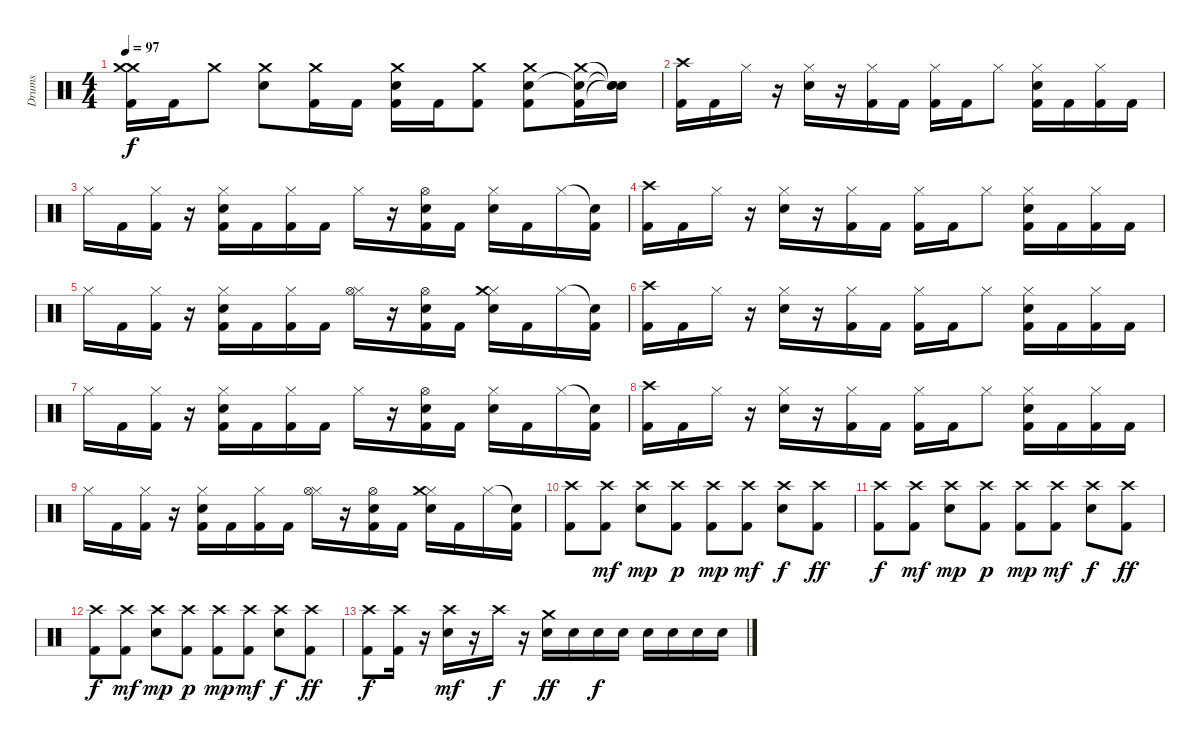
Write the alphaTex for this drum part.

\track ("Drums" "Drums") {instrument percussion}
\staff {score}
\articulation defaults
\ts (4 4)
\tempo 97
\clef neutral
\ks c
("Crash medium (hit)" "Crash medium (hit)" "Kick (hit) 2").16{dy f} "Kick (hit) 2".16 "Crash medium (hit)".8 ("Crash medium (hit)" "Electric Snare (hit)").8 ("Crash medium (hit)" "Kick (hit) 2").16 "Kick (hit) 2".16 ("Crash medium (hit)" "Electric Snare (hit)" "Kick (hit) 2").16 "Kick (hit) 2".16 ("Crash medium (hit)" "Kick (hit) 2").8 ("Crash medium (hit)" "Electric Snare (hit)" "Kick (hit) 2").8 ("Crash medium (hit)" "Snare (hit)"{t} "Kick (hit) 2").16 ("Snare (hit)"{t} "Snare (hit)"{t} "Snare (hit)"{t}).16 |
("Crash high (hit)" "Kick (hit) 2").16 "Kick (hit) 2".16 "Hi-Hat (closed)".16 r.16 ("Hi-Hat (closed)" "Snare (hit) 2").16 r.16 ("Hi-Hat (closed)" "Kick (hit) 2").16 "Kick (hit) 2".16 ("Hi-Hat (closed)" "Kick (hit) 2").16 "Kick (hit) 2".16 "Hi-Hat (closed)".8 ("Hi-Hat (closed)" "Snare (hit) 2" "Kick (hit) 2").16 "Kick (hit) 2".16 ("Hi-Hat (closed)" "Kick (hit) 2").16 "Kick (hit) 2".16 |
"Hi-Hat (closed)".16 "Kick (hit) 2".16 ("Hi-Hat (closed)" "Kick (hit) 2").16 r.16 ("Hi-Hat (closed)" "Snare (hit) 2" "Kick (hit) 2").16 "Kick (hit) 2".16 ("Hi-Hat (closed)" "Kick (hit) 2").16 "Kick (hit) 2".16 "Hi-Hat (closed)".16 r.16 ("Hi-Hat (open)" "Snare (hit) 2" "Kick (hit) 2").16 "Kick (hit) 2".16 ("Hi-Hat (closed)" "Snare (hit) 2").16 "Kick (hit) 2".16 "Hi-Hat (closed)".16 ("Snare (hit)"{t} "Kick (hit) 2").16 |
("Crash high (hit)" "Kick (hit) 2").16 "Kick (hit) 2".16 "Hi-Hat (closed)".16 r.16 ("Hi-Hat (closed)" "Snare (hit) 2").16 r.16 ("Hi-Hat (closed)" "Kick (hit) 2").16 "Kick (hit) 2".16 ("Hi-Hat (closed)" "Kick (hit) 2").16 "Kick (hit) 2".16 "Hi-Hat (closed)".8 ("Hi-Hat (closed)" "Snare (hit) 2" "Kick (hit) 2").16 "Kick (hit) 2".16 ("Hi-Hat (closed)" "Kick (hit) 2").16 "Kick (hit) 2".16 |
"Hi-Hat (closed)".16 "Kick (hit) 2".16 ("Hi-Hat (closed)" "Kick (hit) 2").16 r.16 ("Hi-Hat (closed)" "Snare (hit) 2" "Kick (hit) 2").16 "Kick (hit) 2".16 ("Hi-Hat (closed)" "Kick (hit) 2").16 "Kick (hit) 2".16 ("Hi-Hat (closed)" "Hi-Hat (open)").16 r.16 ("Hi-Hat (open)" "Snare (hit) 2" "Kick (hit) 2").16 "Kick (hit) 2".16 ("Hi-Hat (closed)" "Crash medium (hit)" "Snare (hit) 2").16 "Kick (hit) 2".16 "Hi-Hat (closed)".16 ("Snare (hit)"{t} "Kick (hit) 2").16 |
("Crash high (hit)" "Kick (hit) 2").16 "Kick (hit) 2".16 "Hi-Hat (closed)".16 r.16 ("Hi-Hat (closed)" "Snare (hit) 2").16 r.16 ("Hi-Hat (closed)" "Kick (hit) 2").16 "Kick (hit) 2".16 ("Hi-Hat (closed)" "Kick (hit) 2").16 "Kick (hit) 2".16 "Hi-Hat (closed)".8 ("Hi-Hat (closed)" "Snare (hit) 2" "Kick (hit) 2").16 "Kick (hit) 2".16 ("Hi-Hat (closed)" "Kick (hit) 2").16 "Kick (hit) 2".16 |
"Hi-Hat (closed)".16 "Kick (hit) 2".16 ("Hi-Hat (closed)" "Kick (hit) 2").16 r.16 ("Hi-Hat (closed)" "Snare (hit) 2" "Kick (hit) 2").16 "Kick (hit) 2".16 ("Hi-Hat (closed)" "Kick (hit) 2").16 "Kick (hit) 2".16 "Hi-Hat (closed)".16 r.16 ("Hi-Hat (open)" "Snare (hit) 2" "Kick (hit) 2").16 "Kick (hit) 2".16 ("Hi-Hat (closed)" "Snare (hit) 2").16 "Kick (hit) 2".16 "Hi-Hat (closed)".16 ("Snare (hit)"{t} "Kick (hit) 2").16 |
("Crash high (hit)" "Kick (hit) 2").16 "Kick (hit) 2".16 "Hi-Hat (closed)".16 r.16 ("Hi-Hat (closed)" "Snare (hit) 2").16 r.16 ("Hi-Hat (closed)" "Kick (hit) 2").16 "Kick (hit) 2".16 ("Hi-Hat (closed)" "Kick (hit) 2").16 "Kick (hit) 2".16 "Hi-Hat (closed)".8 ("Hi-Hat (closed)" "Snare (hit) 2" "Kick (hit) 2").16 "Kick (hit) 2".16 ("Hi-Hat (closed)" "Kick (hit) 2").16 "Kick (hit) 2".16 |
"Hi-Hat (closed)".16 "Kick (hit) 2".16 ("Hi-Hat (closed)" "Kick (hit) 2").16 r.16 ("Hi-Hat (closed)" "Snare (hit) 2" "Kick (hit) 2").16 "Kick (hit) 2".16 ("Hi-Hat (closed)" "Kick (hit) 2").16 "Kick (hit) 2".16 ("Hi-Hat (closed)" "Hi-Hat (open)").16 r.16 ("Hi-Hat (open)" "Snare (hit) 2" "Kick (hit) 2").16 "Kick (hit) 2".16 ("Hi-Hat (closed)" "Crash medium (hit)" "Snare (hit) 2").16 "Kick (hit) 2".16 "Hi-Hat (closed)".16 ("Snare (hit)"{t} "Kick (hit) 2").16 |
("Crash high (hit)" "Kick (hit) 2").8 ("Crash high (hit)" "Kick (hit) 2").8{dy mf} ("Crash high (hit)" "Electric Snare (hit)").8{dy mp} ("Crash high (hit)" "Kick (hit) 2").8{dy p} ("Crash high (hit)" "Kick (hit) 2").8{dy mp} ("Crash high (hit)" "Kick (hit) 2").8{dy mf} ("Crash high (hit)" "Electric Snare (hit)").8{dy f} ("Crash high (hit)" "Kick (hit) 2").8{dy ff} |
("Crash high (hit)" "Kick (hit) 2").8{dy f} ("Crash high (hit)" "Kick (hit) 2").8{dy mf} ("Crash high (hit)" "Electric Snare (hit)").8{dy mp} ("Crash high (hit)" "Kick (hit) 2").8{dy p} ("Crash high (hit)" "Kick (hit) 2").8{dy mp} ("Crash high (hit)" "Kick (hit) 2").8{dy mf} ("Crash high (hit)" "Electric Snare (hit)").8{dy f} ("Crash high (hit)" "Kick (hit) 2").8{dy ff} |
("Crash high (hit)" "Kick (hit) 2").8{dy f} ("Crash high (hit)" "Kick (hit) 2").8{dy mf} ("Crash high (hit)" "Electric Snare (hit)").8{dy mp} ("Crash high (hit)" "Kick (hit) 2").8{dy p} ("Crash high (hit)" "Kick (hit) 2").8{dy mp} ("Crash high (hit)" "Kick (hit) 2").8{dy mf} ("Crash high (hit)" "Electric Snare (hit)").8{dy f} ("Crash high (hit)" "Kick (hit) 2").8{dy ff} |
("Crash high (hit)" "Kick (hit) 2").8{dy f} ("Crash high (hit)" "Kick (hit) 2").16 r.16 ("Crash high (hit)" "Snare (hit) 2").16{dy mf} r.16 "Crash high (hit)".16{dy f} r.16 ("Crash medium (hit)" "Snare (hit) 2").16{dy ff} "Snare (hit) 2".16 "Snare (hit) 2".16{dy f} "Snare (hit) 2".16 "Snare (hit) 2".16 "Snare (hit) 2".16 "Snare (hit) 2".16 "Snare (hit) 2".16
